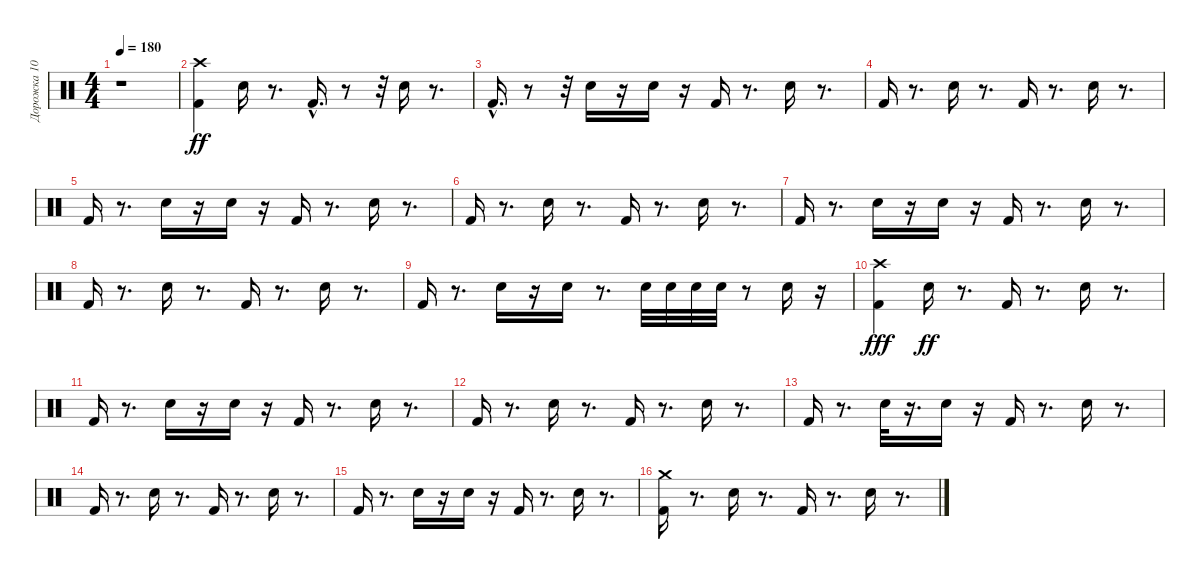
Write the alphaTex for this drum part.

\track ("Дорожка 10" "Дорожка 10") {instrument percussion}
\staff {score}
\articulation defaults
\ts (4 4)
\tempo 180
\clef neutral
\ks c
r.1{dy ff} |
("Crash high (hit)" "Kick (hit) 2").4 "Electric Snare (hit)".16 r.8{d} "Kick (hit) 2"{hac}.16{d} r.8 r.32 "Electric Snare (hit)".16 r.8{d} |
"Kick (hit) 2"{hac}.16{d} r.8 r.32 "Electric Snare (hit)".16 r.16 "Electric Snare (hit)".16 r.16 "Kick (hit) 2".16 r.8{d} "Electric Snare (hit)".16 r.8{d} |
"Kick (hit) 2".16 r.8{d} "Electric Snare (hit)".16 r.8{d} "Kick (hit) 2".16 r.8{d} "Electric Snare (hit)".16 r.8{d} |
"Kick (hit) 2".16 r.8{d} "Electric Snare (hit)".16 r.16 "Electric Snare (hit)".16 r.16 "Kick (hit) 2".16 r.8{d} "Electric Snare (hit)".16 r.8{d} |
"Kick (hit) 2".16 r.8{d} "Electric Snare (hit)".16 r.8{d} "Kick (hit) 2".16 r.8{d} "Electric Snare (hit)".16 r.8{d} |
"Kick (hit) 2".16 r.8{d} "Electric Snare (hit)".16 r.16 "Electric Snare (hit)".16 r.16 "Kick (hit) 2".16 r.8{d} "Electric Snare (hit)".16 r.8{d} |
"Kick (hit) 2".16 r.8{d} "Electric Snare (hit)".16 r.8{d} "Kick (hit) 2".16 r.8{d} "Electric Snare (hit)".16 r.8{d} |
"Kick (hit) 2".16 r.8{d} "Electric Snare (hit)".16 r.16 "Electric Snare (hit)".16 r.8{d} "Electric Snare (hit)".32 "Electric Snare (hit)".32 "Electric Snare (hit)".32 "Electric Snare (hit)".32 r.8 "Electric Snare (hit)".16 r.16 |
("Kick (hit) 2" "Crash high (hit)").4{dy fff} "Electric Snare (hit)".16{dy ff} r.8{d} "Kick (hit) 2".16 r.8{d} "Electric Snare (hit)".16 r.8{d} |
"Kick (hit) 2".16 r.8{d} "Electric Snare (hit)".16 r.16 "Electric Snare (hit)".16 r.16 "Kick (hit) 2".16 r.8{d} "Electric Snare (hit)".16 r.8{d} |
"Kick (hit) 2".16 r.8{d} "Electric Snare (hit)".16 r.8{d} "Kick (hit) 2".16 r.8{d} "Electric Snare (hit)".16 r.8{d} |
"Kick (hit) 2".16 r.8{d} "Electric Snare (hit)".32 r.16{d} "Electric Snare (hit)".16 r.16 "Kick (hit) 2".16 r.8{d} "Electric Snare (hit)".16 r.8{d} |
"Kick (hit) 2".16 r.8{d} "Electric Snare (hit)".16 r.8{d} "Kick (hit) 2".16 r.8{d} "Electric Snare (hit)".16 r.8{d} |
"Kick (hit) 2".16 r.8{d} "Electric Snare (hit)".16 r.16 "Electric Snare (hit)".16 r.16 "Kick (hit) 2".16 r.8{d} "Electric Snare (hit)".16 r.8{d} |
("Crash medium (hit)" "Kick (hit) 2").16 r.8{d} "Electric Snare (hit)".16 r.8{d} "Kick (hit) 2".16 r.8{d} "Electric Snare (hit)".16 r.8{d}
